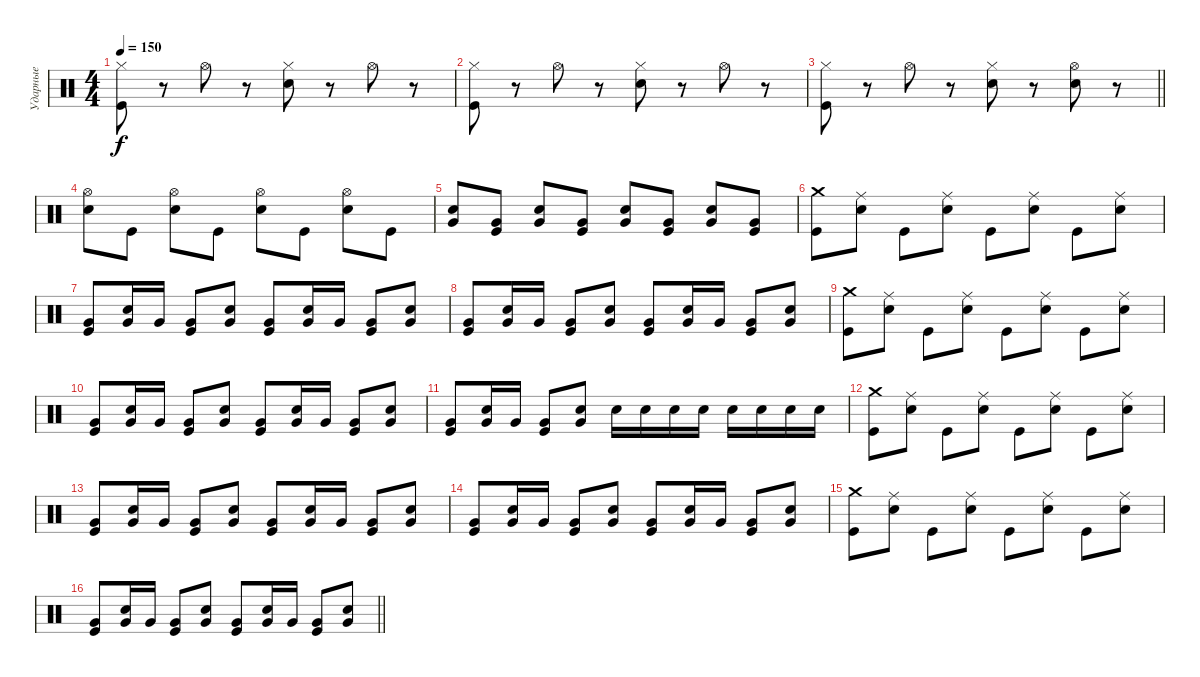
\track ("Ударные" "Ударные") {instrument percussion}
\staff {score}
\articulation defaults
\ts (4 4)
\tempo 150
\clef neutral
\ks c
("Hi-Hat (closed)" "Kick (hit)").8{dy f} r.8 "Hi-Hat (open)".8 r.8 ("Hi-Hat (closed)" "Electric Snare (hit)").8 r.8 "Hi-Hat (open)".8 r.8 |
("Hi-Hat (closed)" "Kick (hit)").8 r.8 "Hi-Hat (open)".8 r.8 ("Hi-Hat (closed)" "Electric Snare (hit)").8 r.8 "Hi-Hat (open)".8 r.8 |
\barLineRight lightlight
("Hi-Hat (closed)" "Kick (hit)").8 r.8 "Hi-Hat (open)".8 r.8 ("Hi-Hat (closed)" "Electric Snare (hit)").8 r.8 ("Hi-Hat (open)" "Electric Snare (hit)").8 r.8 |
\section ("" " ")
("Hi-Hat (open)" "Electric Snare (hit)").8 "Kick (hit)".8 ("Hi-Hat (open)" "Electric Snare (hit)").8 "Kick (hit)".8 ("Hi-Hat (open)" "Electric Snare (hit)").8 "Kick (hit)".8 ("Hi-Hat (open)" "Electric Snare (hit)").8 "Kick (hit)".8 |
("Very Low Tom (hit)" "Electric Snare (hit)").8 ("Very Low Tom (hit)" "Kick (hit)").8 ("Very Low Tom (hit)" "Electric Snare (hit)").8 ("Very Low Tom (hit)" "Kick (hit)").8 ("Very Low Tom (hit)" "Electric Snare (hit)").8 ("Very Low Tom (hit)" "Kick (hit)").8 ("Very Low Tom (hit)" "Electric Snare (hit)").8 ("Very Low Tom (hit)" "Kick (hit)").8 |
("Crash medium (hit)" "Kick (hit)").8 ("Ride (middle)" "Electric Snare (hit)").8 "Kick (hit)".8 ("Ride (middle)" "Electric Snare (hit)").8 "Kick (hit)".8 ("Ride (middle)" "Electric Snare (hit)").8 "Kick (hit)".8 ("Ride (middle)" "Electric Snare (hit)").8 |
("Very Low Tom (hit)" "Kick (hit)").8 ("Very Low Tom (hit)" "Electric Snare (hit)").16 "Very Low Tom (hit)".16 ("Very Low Tom (hit)" "Kick (hit)").8 ("Very Low Tom (hit)" "Electric Snare (hit)").8 ("Very Low Tom (hit)" "Kick (hit)").8 ("Very Low Tom (hit)" "Electric Snare (hit)").16 "Very Low Tom (hit)".16 ("Very Low Tom (hit)" "Kick (hit)").8 ("Very Low Tom (hit)" "Electric Snare (hit)").8 |
("Very Low Tom (hit)" "Kick (hit)").8 ("Very Low Tom (hit)" "Electric Snare (hit)").16 "Very Low Tom (hit)".16 ("Very Low Tom (hit)" "Kick (hit)").8 ("Very Low Tom (hit)" "Electric Snare (hit)").8 ("Very Low Tom (hit)" "Kick (hit)").8 ("Very Low Tom (hit)" "Electric Snare (hit)").16 "Very Low Tom (hit)".16 ("Very Low Tom (hit)" "Kick (hit)").8 ("Very Low Tom (hit)" "Electric Snare (hit)").8 |
("Crash medium (hit)" "Kick (hit)").8 ("Ride (middle)" "Electric Snare (hit)").8 "Kick (hit)".8 ("Ride (middle)" "Electric Snare (hit)").8 "Kick (hit)".8 ("Ride (middle)" "Electric Snare (hit)").8 "Kick (hit)".8 ("Ride (middle)" "Electric Snare (hit)").8 |
("Very Low Tom (hit)" "Kick (hit)").8 ("Very Low Tom (hit)" "Electric Snare (hit)").16 "Very Low Tom (hit)".16 ("Very Low Tom (hit)" "Kick (hit)").8 ("Very Low Tom (hit)" "Electric Snare (hit)").8 ("Very Low Tom (hit)" "Kick (hit)").8 ("Very Low Tom (hit)" "Electric Snare (hit)").16 "Very Low Tom (hit)".16 ("Very Low Tom (hit)" "Kick (hit)").8 ("Very Low Tom (hit)" "Electric Snare (hit)").8 |
("Very Low Tom (hit)" "Kick (hit)").8 ("Very Low Tom (hit)" "Electric Snare (hit)").16 "Very Low Tom (hit)".16 ("Very Low Tom (hit)" "Kick (hit)").8 ("Very Low Tom (hit)" "Electric Snare (hit)").8 "Electric Snare (hit)".16 "Electric Snare (hit)".16 "Electric Snare (hit)".16 "Electric Snare (hit)".16 "Electric Snare (hit)".16 "Electric Snare (hit)".16 "Electric Snare (hit)".16 "Electric Snare (hit)".16 |
("Crash medium (hit)" "Kick (hit)").8 ("Ride (middle)" "Electric Snare (hit)").8 "Kick (hit)".8 ("Ride (middle)" "Electric Snare (hit)").8 "Kick (hit)".8 ("Ride (middle)" "Electric Snare (hit)").8 "Kick (hit)".8 ("Ride (middle)" "Electric Snare (hit)").8 |
("Very Low Tom (hit)" "Kick (hit)").8 ("Very Low Tom (hit)" "Electric Snare (hit)").16 "Very Low Tom (hit)".16 ("Very Low Tom (hit)" "Kick (hit)").8 ("Very Low Tom (hit)" "Electric Snare (hit)").8 ("Very Low Tom (hit)" "Kick (hit)").8 ("Very Low Tom (hit)" "Electric Snare (hit)").16 "Very Low Tom (hit)".16 ("Very Low Tom (hit)" "Kick (hit)").8 ("Very Low Tom (hit)" "Electric Snare (hit)").8 |
("Very Low Tom (hit)" "Kick (hit)").8 ("Very Low Tom (hit)" "Electric Snare (hit)").16 "Very Low Tom (hit)".16 ("Very Low Tom (hit)" "Kick (hit)").8 ("Very Low Tom (hit)" "Electric Snare (hit)").8 ("Very Low Tom (hit)" "Kick (hit)").8 ("Very Low Tom (hit)" "Electric Snare (hit)").16 "Very Low Tom (hit)".16 ("Very Low Tom (hit)" "Kick (hit)").8 ("Very Low Tom (hit)" "Electric Snare (hit)").8 |
("Crash medium (hit)" "Kick (hit)").8 ("Ride (middle)" "Electric Snare (hit)").8 "Kick (hit)".8 ("Ride (middle)" "Electric Snare (hit)").8 "Kick (hit)".8 ("Ride (middle)" "Electric Snare (hit)").8 "Kick (hit)".8 ("Ride (middle)" "Electric Snare (hit)").8 |
\barLineRight lightlight
("Very Low Tom (hit)" "Kick (hit)").8 ("Very Low Tom (hit)" "Electric Snare (hit)").16 "Very Low Tom (hit)".16 ("Very Low Tom (hit)" "Kick (hit)").8 ("Very Low Tom (hit)" "Electric Snare (hit)").8 ("Very Low Tom (hit)" "Kick (hit)").8 ("Very Low Tom (hit)" "Electric Snare (hit)").16 "Very Low Tom (hit)".16 ("Very Low Tom (hit)" "Kick (hit)").8 ("Very Low Tom (hit)" "Electric Snare (hit)").8
